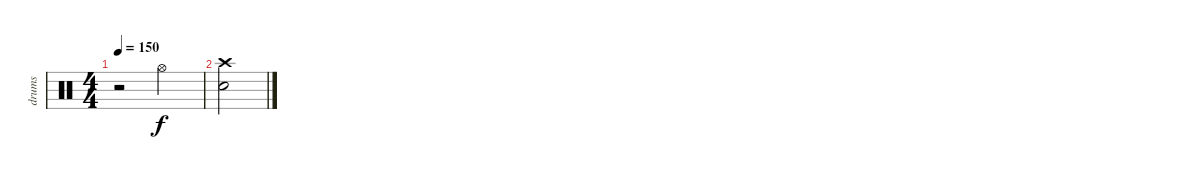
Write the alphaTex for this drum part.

\track ("drums" "drums") {instrument percussion}
\staff {score}
\articulation defaults
\ts (4 4)
\tempo 150
\clef neutral
\ks c
r.2{dy f} "Hi-Hat (open)".2 |
("Snare (hit) 2" "Crash high (hit)").2
